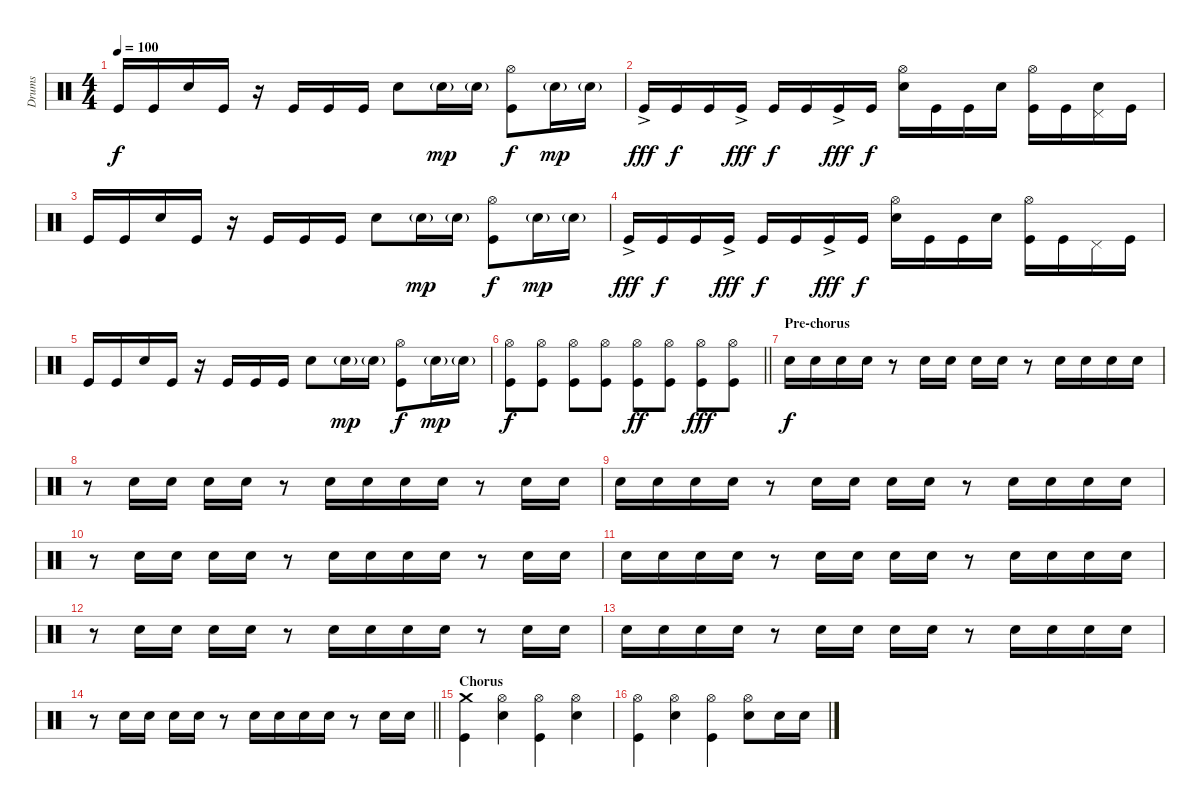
\track ("Drums" "Drums") {instrument percussion}
\staff {score}
\articulation defaults
\ts (4 4)
\tempo 100
\clef neutral
\ks c "Kick (hit)".16{dy f} "Kick (hit)".16 "Electric Snare (hit)".16 "Kick (hit)".16
r.16 "Kick (hit)".16 "Kick (hit)".16 "Kick (hit)".16 "Electric Snare (hit)".8 "Electric Snare (hit)"{g}.16{dy mp} "Electric Snare (hit)"{g}.16 ("Hi-Hat (open)" "Kick (hit)").8{dy f} "Electric Snare (hit)"{g}.16{dy mp} "Electric Snare (hit)"{g}.16 |
"Kick (hit)"{ac}.16{dy fff} "Kick (hit)".16{dy f} "Kick (hit)".16 "Kick (hit)"{ac}.16{dy fff} "Kick (hit)".16{dy f} "Kick (hit)".16 "Kick (hit)"{ac}.16{dy fff} "Kick (hit)".16{dy f} ("Hi-Hat (open)" "Electric Snare (hit)").16 "Kick (hit)".16 "Kick (hit)".16 "Electric Snare (hit)".16 ("Hi-Hat (open)" "Kick (hit)").16 "Kick (hit)".16 ("Pedal Hi-Hat (hit)" "Electric Snare (hit)").16 "Kick (hit)".16 |
"Kick (hit)".16 "Kick (hit)".16 "Electric Snare (hit)".16 "Kick (hit)".16 r.16 "Kick (hit)".16 "Kick (hit)".16 "Kick (hit)".16 "Electric Snare (hit)".8 "Electric Snare (hit)"{g}.16{dy mp} "Electric Snare (hit)"{g}.16 ("Hi-Hat (open)" "Kick (hit)").8{dy f} "Electric Snare (hit)"{g}.16{dy mp} "Electric Snare (hit)"{g}.16 |
"Kick (hit)"{ac}.16{dy fff} "Kick (hit)".16{dy f} "Kick (hit)".16 "Kick (hit)"{ac}.16{dy fff} "Kick (hit)".16{dy f} "Kick (hit)".16 "Kick (hit)"{ac}.16{dy fff} "Kick (hit)".16{dy f} ("Hi-Hat (open)" "Electric Snare (hit)").16 "Kick (hit)".16 "Kick (hit)".16 "Electric Snare (hit)".16 ("Hi-Hat (open)" "Kick (hit)").16 "Kick (hit)".16 "Pedal Hi-Hat (hit)".16 "Kick (hit)".16 |
"Kick (hit)".16 "Kick (hit)".16 "Electric Snare (hit)".16 "Kick (hit)".16 r.16 "Kick (hit)".16 "Kick (hit)".16 "Kick (hit)".16 "Electric Snare (hit)".8 "Electric Snare (hit)"{g}.16{dy mp} "Electric Snare (hit)"{g}.16 ("Hi-Hat (open)" "Kick (hit)").8{dy f} "Electric Snare (hit)"{g}.16{dy mp} "Electric Snare (hit)"{g}.16 |
\barLineRight lightlight
("Hi-Hat (open)" "Kick (hit)").8{dy f volume 11} ("Hi-Hat (open)" "Kick (hit)").8 ("Hi-Hat (open)" "Kick (hit)").8 ("Hi-Hat (open)" "Kick (hit)").8 ("Hi-Hat (open)" "Kick (hit)").8{dy ff} ("Hi-Hat (open)" "Kick (hit)").8 ("Hi-Hat (open)" "Kick (hit)").8{dy fff} ("Hi-Hat (open)" "Kick (hit)").8 |
\section ("" "Pre-chorus")
"Electric Snare (hit)".16{dy f} "Electric Snare (hit)".16 "Electric Snare (hit)".16 "Electric Snare (hit)".16 r.8 "Electric Snare (hit)".16 "Electric Snare (hit)".16 "Electric Snare (hit)".16 "Electric Snare (hit)".16 r.8 "Electric Snare (hit)".16 "Electric Snare (hit)".16 "Electric Snare (hit)".16 "Electric Snare (hit)".16 |
r.8 "Electric Snare (hit)".16 "Electric Snare (hit)".16 "Electric Snare (hit)".16 "Electric Snare (hit)".16 r.8 "Electric Snare (hit)".16 "Electric Snare (hit)".16 "Electric Snare (hit)".16 "Electric Snare (hit)".16 r.8 "Electric Snare (hit)".16 "Electric Snare (hit)".16 |
"Electric Snare (hit)".16 "Electric Snare (hit)".16 "Electric Snare (hit)".16 "Electric Snare (hit)".16 r.8 "Electric Snare (hit)".16 "Electric Snare (hit)".16 "Electric Snare (hit)".16 "Electric Snare (hit)".16 r.8 "Electric Snare (hit)".16 "Electric Snare (hit)".16 "Electric Snare (hit)".16 "Electric Snare (hit)".16 |
r.8 "Electric Snare (hit)".16 "Electric Snare (hit)".16 "Electric Snare (hit)".16 "Electric Snare (hit)".16 r.8 "Electric Snare (hit)".16 "Electric Snare (hit)".16 "Electric Snare (hit)".16 "Electric Snare (hit)".16 r.8 "Electric Snare (hit)".16 "Electric Snare (hit)".16 |
"Electric Snare (hit)".16 "Electric Snare (hit)".16 "Electric Snare (hit)".16 "Electric Snare (hit)".16 r.8 "Electric Snare (hit)".16 "Electric Snare (hit)".16 "Electric Snare (hit)".16 "Electric Snare (hit)".16 r.8 "Electric Snare (hit)".16 "Electric Snare (hit)".16 "Electric Snare (hit)".16 "Electric Snare (hit)".16 |
r.8 "Electric Snare (hit)".16 "Electric Snare (hit)".16 "Electric Snare (hit)".16 "Electric Snare (hit)".16 r.8 "Electric Snare (hit)".16 "Electric Snare (hit)".16 "Electric Snare (hit)".16 "Electric Snare (hit)".16 r.8 "Electric Snare (hit)".16 "Electric Snare (hit)".16 |
"Electric Snare (hit)".16 "Electric Snare (hit)".16 "Electric Snare (hit)".16 "Electric Snare (hit)".16 r.8 "Electric Snare (hit)".16 "Electric Snare (hit)".16 "Electric Snare (hit)".16 "Electric Snare (hit)".16 r.8 "Electric Snare (hit)".16 "Electric Snare (hit)".16 "Electric Snare (hit)".16 "Electric Snare (hit)".16 |
\barLineRight lightlight
r.8 "Electric Snare (hit)".16 "Electric Snare (hit)".16 "Electric Snare (hit)".16 "Electric Snare (hit)".16 r.8 "Electric Snare (hit)".16 "Electric Snare (hit)".16 "Electric Snare (hit)".16 "Electric Snare (hit)".16 r.8 "Electric Snare (hit)".16 "Electric Snare (hit)".16 |
\section ("" "Chorus")
("Crash medium (hit)" "Kick (hit)").4{volume 13} ("Hi-Hat (open)" "Electric Snare (hit)").4 ("Hi-Hat (open)" "Kick (hit)").4 ("Hi-Hat (open)" "Electric Snare (hit)").4 |
("Hi-Hat (open)" "Kick (hit)").4 ("Hi-Hat (open)" "Electric Snare (hit)").4 ("Hi-Hat (open)" "Kick (hit)").4 ("Hi-Hat (open)" "Electric Snare (hit)").8 "Electric Snare (hit)".16 "Electric Snare (hit)".16
